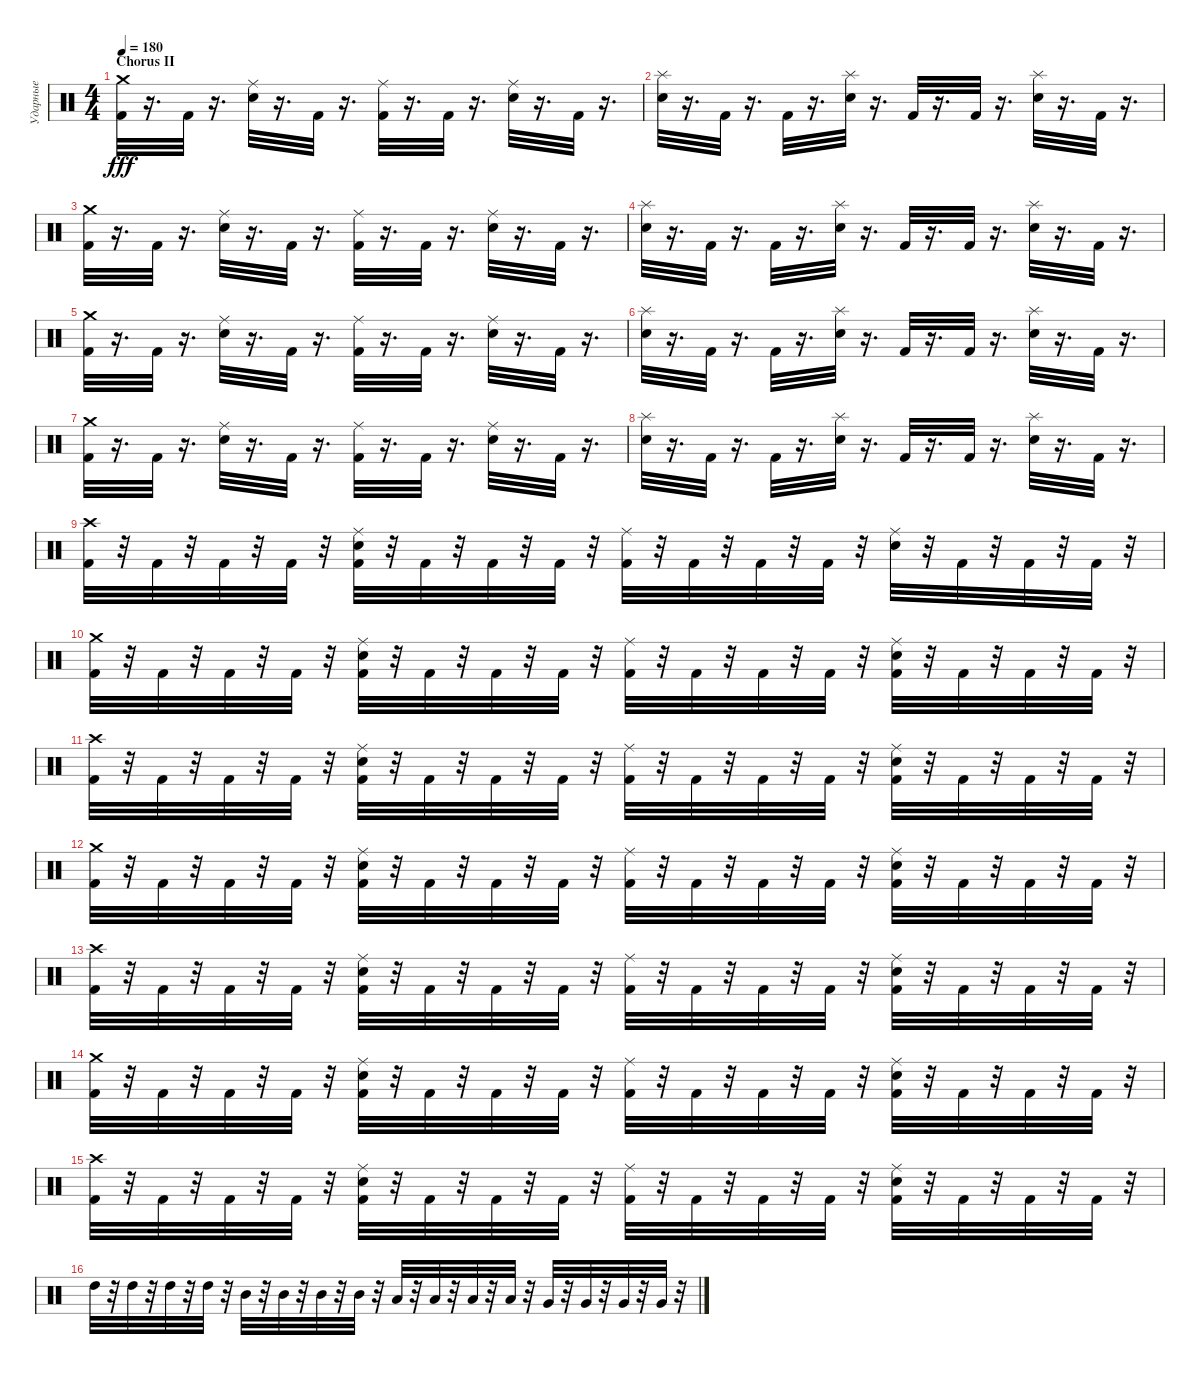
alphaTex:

\track ("Ударные" "Ударные") {instrument percussion}
\staff {score}
\articulation defaults
\ts (4 4)
\section ("" "Chorus II")
\tempo 180
\clef neutral
\ks c
("Crash medium (hit)" "Kick (hit) 2").32{dy fff} r.16{d} "Kick (hit) 2".32 r.16{d} ("Snare (hit) 2" "Ride (middle)").32 r.16{d} "Kick (hit) 2".32 r.16{d} ("Kick (hit) 2" "Ride (middle)").32 r.16{d} "Kick (hit) 2".32 r.16{d} ("Snare (hit) 2" "Ride (middle)").32 r.16{d} "Kick (hit) 2".32 r.16{d} |
("Snare (hit) 2" "Splash (hit)").32 r.16{d} "Kick (hit) 2".32 r.16{d} "Kick (hit) 2".32 r.16{d} ("Snare (hit) 2" "Splash (hit)").32 r.16{d} "Kick (hit) 2".32 r.16{d} "Kick (hit) 2".32 r.16{d} ("Snare (hit) 2" "Splash (hit)").32 r.16{d} "Kick (hit) 2".32 r.16{d} |
("Kick (hit) 2" "Crash medium (hit)").32 r.16{d} "Kick (hit) 2".32 r.16{d} ("Ride (middle)" "Snare (hit) 2").32 r.16{d} "Kick (hit) 2".32 r.16{d} ("Ride (middle)" "Kick (hit) 2").32 r.16{d} "Kick (hit) 2".32 r.16{d} ("Ride (middle)" "Snare (hit) 2").32 r.16{d} "Kick (hit) 2".32 r.16{d} |
("Splash (hit)" "Snare (hit) 2").32 r.16{d} "Kick (hit) 2".32 r.16{d} "Kick (hit) 2".32 r.16{d} ("Splash (hit)" "Snare (hit) 2").32 r.16{d} "Kick (hit) 2".32 r.16{d} "Kick (hit) 2".32 r.16{d} ("Snare (hit) 2" "Splash (hit)").32 r.16{d} "Kick (hit) 2".32 r.16{d} |
("Kick (hit) 2" "Crash medium (hit)").32 r.16{d} "Kick (hit) 2".32 r.16{d} ("Ride (middle)" "Snare (hit) 2").32 r.16{d} "Kick (hit) 2".32 r.16{d} ("Kick (hit) 2" "Ride (middle)").32 r.16{d} "Kick (hit) 2".32 r.16{d} ("Snare (hit) 2" "Ride (middle)").32 r.16{d} "Kick (hit) 2".32 r.16{d} |
("Splash (hit)" "Snare (hit) 2").32 r.16{d} "Kick (hit) 2".32 r.16{d} "Kick (hit) 2".32 r.16{d} ("Splash (hit)" "Snare (hit) 2").32 r.16{d} "Kick (hit) 2".32 r.16{d} "Kick (hit) 2".32 r.16{d} ("Snare (hit) 2" "Splash (hit)").32 r.16{d} "Kick (hit) 2".32 r.16{d} |
("Crash medium (hit)" "Kick (hit) 2").32 r.16{d} "Kick (hit) 2".32 r.16{d} ("Ride (middle)" "Snare (hit) 2").32 r.16{d} "Kick (hit) 2".32 r.16{d} ("Ride (middle)" "Kick (hit) 2").32 r.16{d} "Kick (hit) 2".32 r.16{d} ("Snare (hit) 2" "Ride (middle)").32 r.16{d} "Kick (hit) 2".32 r.16{d} |
("Splash (hit)" "Snare (hit) 2").32 r.16{d} "Kick (hit) 2".32 r.16{d} "Kick (hit) 2".32 r.16{d} ("Splash (hit)" "Snare (hit) 2").32 r.16{d} "Kick (hit) 2".32 r.16{d} "Kick (hit) 2".32 r.16{d} ("Splash (hit)" "Snare (hit) 2").32 r.16{d} "Kick (hit) 2".32 r.16{d} |
("Crash high (hit)" "Kick (hit) 2").32 r.32 "Kick (hit) 2".32 r.32 "Kick (hit) 2".32 r.32 "Kick (hit) 2".32 r.32 ("Kick (hit) 2" "Ride (middle)" "Snare (hit) 2").32 r.32 "Kick (hit) 2".32 r.32 "Kick (hit) 2".32 r.32 "Kick (hit) 2".32 r.32 ("Kick (hit) 2" "Ride (middle)").32 r.32 "Kick (hit) 2".32 r.32 "Kick (hit) 2".32 r.32 "Kick (hit) 2".32 r.32 ("Snare (hit) 2" "Ride (middle)").32 r.32 "Kick (hit) 2".32 r.32 "Kick (hit) 2".32 r.32 "Kick (hit) 2".32 r.32 |
("Kick (hit) 2" "Crash medium (hit)").32 r.32 "Kick (hit) 2".32 r.32 "Kick (hit) 2".32 r.32 "Kick (hit) 2".32 r.32 ("Snare (hit) 2" "Kick (hit) 2" "Ride (middle)").32 r.32 "Kick (hit) 2".32 r.32 "Kick (hit) 2".32 r.32 "Kick (hit) 2".32 r.32 ("Ride (middle)" "Kick (hit) 2").32 r.32 "Kick (hit) 2".32 r.32 "Kick (hit) 2".32 r.32 "Kick (hit) 2".32 r.32 ("Snare (hit) 2" "Ride (middle)" "Kick (hit) 2").32 r.32 "Kick (hit) 2".32 r.32 "Kick (hit) 2".32 r.32 "Kick (hit) 2".32 r.32 |
("Kick (hit) 2" "Crash high (hit)").32 r.32 "Kick (hit) 2".32 r.32 "Kick (hit) 2".32 r.32 "Kick (hit) 2".32 r.32 ("Ride (middle)" "Kick (hit) 2" "Snare (hit) 2").32 r.32 "Kick (hit) 2".32 r.32 "Kick (hit) 2".32 r.32 "Kick (hit) 2".32 r.32 ("Kick (hit) 2" "Ride (middle)").32 r.32 "Kick (hit) 2".32 r.32 "Kick (hit) 2".32 r.32 "Kick (hit) 2".32 r.32 ("Snare (hit) 2" "Kick (hit) 2" "Ride (middle)").32 r.32 "Kick (hit) 2".32 r.32 "Kick (hit) 2".32 r.32 "Kick (hit) 2".32 r.32 |
("Kick (hit) 2" "Crash medium (hit)").32 r.32 "Kick (hit) 2".32 r.32 "Kick (hit) 2".32 r.32 "Kick (hit) 2".32 r.32 ("Ride (middle)" "Kick (hit) 2" "Snare (hit) 2").32 r.32 "Kick (hit) 2".32 r.32 "Kick (hit) 2".32 r.32 "Kick (hit) 2".32 r.32 ("Kick (hit) 2" "Ride (middle)").32 r.32 "Kick (hit) 2".32 r.32 "Kick (hit) 2".32 r.32 "Kick (hit) 2".32 r.32 ("Snare (hit) 2" "Ride (middle)" "Kick (hit) 2").32 r.32 "Kick (hit) 2".32 r.32 "Kick (hit) 2".32 r.32 "Kick (hit) 2".32 r.32 |
("Crash high (hit)" "Kick (hit) 2").32 r.32 "Kick (hit) 2".32 r.32 "Kick (hit) 2".32 r.32 "Kick (hit) 2".32 r.32 ("Snare (hit) 2" "Kick (hit) 2" "Ride (middle)").32 r.32 "Kick (hit) 2".32 r.32 "Kick (hit) 2".32 r.32 "Kick (hit) 2".32 r.32 ("Kick (hit) 2" "Ride (middle)").32 r.32 "Kick (hit) 2".32 r.32 "Kick (hit) 2".32 r.32 "Kick (hit) 2".32 r.32 ("Snare (hit) 2" "Ride (middle)" "Kick (hit) 2").32 r.32 "Kick (hit) 2".32 r.32 "Kick (hit) 2".32 r.32 "Kick (hit) 2".32 r.32 |
("Kick (hit) 2" "Crash medium (hit)").32 r.32 "Kick (hit) 2".32 r.32 "Kick (hit) 2".32 r.32 "Kick (hit) 2".32 r.32 ("Kick (hit) 2" "Ride (middle)" "Snare (hit) 2").32 r.32 "Kick (hit) 2".32 r.32 "Kick (hit) 2".32 r.32 "Kick (hit) 2".32 r.32 ("Ride (middle)" "Kick (hit) 2").32 r.32 "Kick (hit) 2".32 r.32 "Kick (hit) 2".32 r.32 "Kick (hit) 2".32 r.32 ("Ride (middle)" "Kick (hit) 2" "Snare (hit) 2").32 r.32 "Kick (hit) 2".32 r.32 "Kick (hit) 2".32 r.32 "Kick (hit) 2".32 r.32 |
("Kick (hit) 2" "Crash high (hit)").32 r.32 "Kick (hit) 2".32 r.32 "Kick (hit) 2".32 r.32 "Kick (hit) 2".32 r.32 ("Ride (middle)" "Snare (hit) 2" "Kick (hit) 2").32 r.32 "Kick (hit) 2".32 r.32 "Kick (hit) 2".32 r.32 "Kick (hit) 2".32 r.32 ("Kick (hit) 2" "Ride (middle)").32 r.32 "Kick (hit) 2".32 r.32 "Kick (hit) 2".32 r.32 "Kick (hit) 2".32 r.32 ("Ride (middle)" "Kick (hit) 2" "Snare (hit) 2").32 r.32 "Kick (hit) 2".32 r.32 "Kick (hit) 2".32 r.32 "Kick (hit) 2".32 r.32 |
"High Tom (hit)".32 r.32 "High Tom (hit)".32 r.32 "High Tom (hit)".32 r.32 "High Tom (hit)".32 r.32 "Mid Tom (hit)".32 r.32 "Mid Tom (hit)".32 r.32 "Mid Tom (hit)".32 r.32 "Mid Tom (hit)".32 r.32 "Low Tom (hit)".32 r.32 "Low Tom (hit)".32 r.32 "Low Tom (hit)".32 r.32 "Low Tom (hit)".32 r.32 "Very Low Tom (hit)".32 r.32 "Very Low Tom (hit)".32 r.32 "Very Low Tom (hit)".32 r.32 "Very Low Tom (hit)".32 r.32
